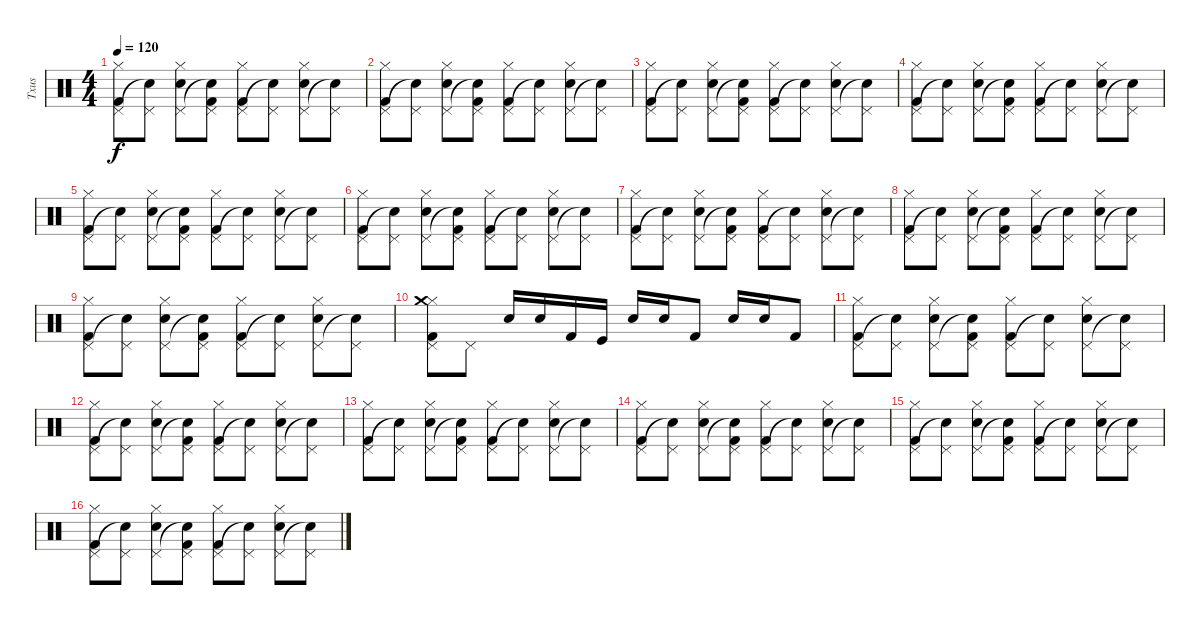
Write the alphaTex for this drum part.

\track ("Txus" "Txus") {instrument percussion}
\staff {score}
\articulation defaults
\ts (4 4)
\tempo 120
\clef neutral
\ks c
("Hi-Hat (closed)" "Pedal Hi-Hat (hit)" "Kick (hit) 2").8{dy f} ("Pedal Hi-Hat (hit)" "Snare (hit)"{t}).8 ("Hi-Hat (closed)" "Pedal Hi-Hat (hit)" "Snare (hit) 2").8 ("Pedal Hi-Hat (hit)" "Snare (hit)"{t} "Kick (hit) 2").8 ("Hi-Hat (closed)" "Pedal Hi-Hat (hit)" "Kick (hit) 2").8 ("Pedal Hi-Hat (hit)" "Snare (hit)"{t}).8 ("Hi-Hat (closed)" "Pedal Hi-Hat (hit)" "Snare (hit) 2").8 ("Pedal Hi-Hat (hit)" "Snare (hit) 2"{t}).8 |
("Hi-Hat (closed)" "Pedal Hi-Hat (hit)" "Kick (hit) 2").8 ("Pedal Hi-Hat (hit)" "Snare (hit)"{t}).8 ("Hi-Hat (closed)" "Pedal Hi-Hat (hit)" "Snare (hit) 2").8 ("Pedal Hi-Hat (hit)" "Snare (hit)"{t} "Kick (hit) 2").8 ("Hi-Hat (closed)" "Pedal Hi-Hat (hit)" "Kick (hit) 2").8 ("Pedal Hi-Hat (hit)" "Snare (hit)"{t}).8 ("Hi-Hat (closed)" "Pedal Hi-Hat (hit)" "Snare (hit) 2").8 ("Pedal Hi-Hat (hit)" "Snare (hit) 2"{t}).8 |
("Hi-Hat (closed)" "Pedal Hi-Hat (hit)" "Kick (hit) 2").8 ("Pedal Hi-Hat (hit)" "Snare (hit)"{t}).8 ("Hi-Hat (closed)" "Pedal Hi-Hat (hit)" "Snare (hit) 2").8 ("Pedal Hi-Hat (hit)" "Snare (hit)"{t} "Kick (hit) 2").8 ("Hi-Hat (closed)" "Pedal Hi-Hat (hit)" "Kick (hit) 2").8 ("Pedal Hi-Hat (hit)" "Snare (hit)"{t}).8 ("Hi-Hat (closed)" "Pedal Hi-Hat (hit)" "Snare (hit) 2").8 ("Pedal Hi-Hat (hit)" "Snare (hit) 2"{t}).8 |
("Hi-Hat (closed)" "Pedal Hi-Hat (hit)" "Kick (hit) 2").8 ("Pedal Hi-Hat (hit)" "Snare (hit)"{t}).8 ("Hi-Hat (closed)" "Pedal Hi-Hat (hit)" "Snare (hit) 2").8 ("Pedal Hi-Hat (hit)" "Snare (hit)"{t} "Kick (hit) 2").8 ("Hi-Hat (closed)" "Pedal Hi-Hat (hit)" "Kick (hit) 2").8 ("Pedal Hi-Hat (hit)" "Snare (hit)"{t}).8 ("Hi-Hat (closed)" "Pedal Hi-Hat (hit)" "Snare (hit) 2").8 ("Pedal Hi-Hat (hit)" "Snare (hit) 2"{t}).8 |
("Hi-Hat (closed)" "Pedal Hi-Hat (hit)" "Kick (hit) 2").8 ("Pedal Hi-Hat (hit)" "Snare (hit)"{t}).8 ("Hi-Hat (closed)" "Pedal Hi-Hat (hit)" "Snare (hit) 2").8 ("Pedal Hi-Hat (hit)" "Snare (hit)"{t} "Kick (hit) 2").8 ("Hi-Hat (closed)" "Pedal Hi-Hat (hit)" "Kick (hit) 2").8 ("Pedal Hi-Hat (hit)" "Snare (hit)"{t}).8 ("Hi-Hat (closed)" "Pedal Hi-Hat (hit)" "Snare (hit) 2").8 ("Pedal Hi-Hat (hit)" "Snare (hit) 2"{t}).8 |
("Hi-Hat (closed)" "Pedal Hi-Hat (hit)" "Kick (hit) 2").8 ("Pedal Hi-Hat (hit)" "Snare (hit)"{t}).8 ("Hi-Hat (closed)" "Pedal Hi-Hat (hit)" "Snare (hit) 2").8 ("Pedal Hi-Hat (hit)" "Snare (hit)"{t} "Kick (hit) 2").8 ("Hi-Hat (closed)" "Pedal Hi-Hat (hit)" "Kick (hit) 2").8 ("Pedal Hi-Hat (hit)" "Snare (hit)"{t}).8 ("Hi-Hat (closed)" "Pedal Hi-Hat (hit)" "Snare (hit) 2").8 ("Pedal Hi-Hat (hit)" "Snare (hit) 2"{t}).8 |
("Hi-Hat (closed)" "Pedal Hi-Hat (hit)" "Kick (hit) 2").8 ("Pedal Hi-Hat (hit)" "Snare (hit)"{t}).8 ("Hi-Hat (closed)" "Pedal Hi-Hat (hit)" "Snare (hit) 2").8 ("Pedal Hi-Hat (hit)" "Snare (hit)"{t} "Kick (hit) 2").8 ("Hi-Hat (closed)" "Pedal Hi-Hat (hit)" "Kick (hit) 2").8 ("Pedal Hi-Hat (hit)" "Snare (hit)"{t}).8 ("Hi-Hat (closed)" "Pedal Hi-Hat (hit)" "Snare (hit) 2").8 ("Pedal Hi-Hat (hit)" "Snare (hit) 2"{t}).8 |
("Hi-Hat (closed)" "Pedal Hi-Hat (hit)" "Kick (hit) 2").8 ("Pedal Hi-Hat (hit)" "Snare (hit)"{t}).8 ("Hi-Hat (closed)" "Pedal Hi-Hat (hit)" "Snare (hit) 2").8 ("Pedal Hi-Hat (hit)" "Snare (hit)"{t} "Kick (hit) 2").8 ("Hi-Hat (closed)" "Pedal Hi-Hat (hit)" "Kick (hit) 2").8 ("Pedal Hi-Hat (hit)" "Snare (hit)"{t}).8 ("Hi-Hat (closed)" "Pedal Hi-Hat (hit)" "Snare (hit) 2").8 ("Pedal Hi-Hat (hit)" "Snare (hit) 2"{t}).8 |
("Hi-Hat (closed)" "Pedal Hi-Hat (hit)" "Kick (hit) 2").8 ("Pedal Hi-Hat (hit)" "Snare (hit)"{t}).8 ("Hi-Hat (closed)" "Pedal Hi-Hat (hit)" "Snare (hit) 2").8 ("Pedal Hi-Hat (hit)" "Snare (hit)"{t} "Kick (hit) 2").8 ("Hi-Hat (closed)" "Pedal Hi-Hat (hit)" "Kick (hit) 2").8 ("Pedal Hi-Hat (hit)" "Snare (hit)"{t}).8 ("Hi-Hat (closed)" "Pedal Hi-Hat (hit)" "Snare (hit) 2").8 ("Pedal Hi-Hat (hit)" "Snare (hit) 2"{t}).8 |
("Hi-Hat (closed)" "Pedal Hi-Hat (hit)" "Crash medium (hit)" "Kick (hit) 2").8 "Pedal Hi-Hat (hit)".8 "Snare (hit) 2".16 "Snare (hit) 2".16 "Kick (hit) 2".16 "Kick (hit)".16 "Snare (hit) 2".16 "Snare (hit) 2".16 "Kick (hit) 2".8 "Snare (hit) 2".16 "Snare (hit) 2".16 "Kick (hit) 2".8 |
("Hi-Hat (closed)" "Pedal Hi-Hat (hit)" "Kick (hit) 2").8 ("Pedal Hi-Hat (hit)" "Snare (hit)"{t}).8 ("Hi-Hat (closed)" "Pedal Hi-Hat (hit)" "Snare (hit) 2").8 ("Pedal Hi-Hat (hit)" "Snare (hit)"{t} "Kick (hit) 2").8 ("Hi-Hat (closed)" "Pedal Hi-Hat (hit)" "Kick (hit) 2").8 ("Pedal Hi-Hat (hit)" "Snare (hit)"{t}).8 ("Hi-Hat (closed)" "Pedal Hi-Hat (hit)" "Snare (hit) 2").8 ("Pedal Hi-Hat (hit)" "Snare (hit) 2"{t}).8 |
("Hi-Hat (closed)" "Pedal Hi-Hat (hit)" "Kick (hit) 2").8 ("Pedal Hi-Hat (hit)" "Snare (hit)"{t}).8 ("Hi-Hat (closed)" "Pedal Hi-Hat (hit)" "Snare (hit) 2").8 ("Pedal Hi-Hat (hit)" "Snare (hit)"{t} "Kick (hit) 2").8 ("Hi-Hat (closed)" "Pedal Hi-Hat (hit)" "Kick (hit) 2").8 ("Pedal Hi-Hat (hit)" "Snare (hit)"{t}).8 ("Hi-Hat (closed)" "Pedal Hi-Hat (hit)" "Snare (hit) 2").8 ("Pedal Hi-Hat (hit)" "Snare (hit) 2"{t}).8 |
("Hi-Hat (closed)" "Pedal Hi-Hat (hit)" "Kick (hit) 2").8 ("Pedal Hi-Hat (hit)" "Snare (hit)"{t}).8 ("Hi-Hat (closed)" "Pedal Hi-Hat (hit)" "Snare (hit) 2").8 ("Pedal Hi-Hat (hit)" "Snare (hit)"{t} "Kick (hit) 2").8 ("Hi-Hat (closed)" "Pedal Hi-Hat (hit)" "Kick (hit) 2").8 ("Pedal Hi-Hat (hit)" "Snare (hit)"{t}).8 ("Hi-Hat (closed)" "Pedal Hi-Hat (hit)" "Snare (hit) 2").8 ("Pedal Hi-Hat (hit)" "Snare (hit) 2"{t}).8 |
("Hi-Hat (closed)" "Pedal Hi-Hat (hit)" "Kick (hit) 2").8 ("Pedal Hi-Hat (hit)" "Snare (hit)"{t}).8 ("Hi-Hat (closed)" "Pedal Hi-Hat (hit)" "Snare (hit) 2").8 ("Pedal Hi-Hat (hit)" "Snare (hit)"{t} "Kick (hit) 2").8 ("Hi-Hat (closed)" "Pedal Hi-Hat (hit)" "Kick (hit) 2").8 ("Pedal Hi-Hat (hit)" "Snare (hit)"{t}).8 ("Hi-Hat (closed)" "Pedal Hi-Hat (hit)" "Snare (hit) 2").8 ("Pedal Hi-Hat (hit)" "Snare (hit) 2"{t}).8 |
("Hi-Hat (closed)" "Pedal Hi-Hat (hit)" "Kick (hit) 2").8 ("Pedal Hi-Hat (hit)" "Snare (hit)"{t}).8 ("Hi-Hat (closed)" "Pedal Hi-Hat (hit)" "Snare (hit) 2").8 ("Pedal Hi-Hat (hit)" "Snare (hit)"{t} "Kick (hit) 2").8 ("Hi-Hat (closed)" "Pedal Hi-Hat (hit)" "Kick (hit) 2").8 ("Pedal Hi-Hat (hit)" "Snare (hit)"{t}).8 ("Hi-Hat (closed)" "Pedal Hi-Hat (hit)" "Snare (hit) 2").8 ("Pedal Hi-Hat (hit)" "Snare (hit) 2"{t}).8 |
("Hi-Hat (closed)" "Pedal Hi-Hat (hit)" "Kick (hit) 2").8 ("Pedal Hi-Hat (hit)" "Snare (hit)"{t}).8 ("Hi-Hat (closed)" "Pedal Hi-Hat (hit)" "Snare (hit) 2").8 ("Pedal Hi-Hat (hit)" "Snare (hit)"{t} "Kick (hit) 2").8 ("Hi-Hat (closed)" "Pedal Hi-Hat (hit)" "Kick (hit) 2").8 ("Pedal Hi-Hat (hit)" "Snare (hit)"{t}).8 ("Hi-Hat (closed)" "Pedal Hi-Hat (hit)" "Snare (hit) 2").8 ("Pedal Hi-Hat (hit)" "Snare (hit) 2"{t}).8
